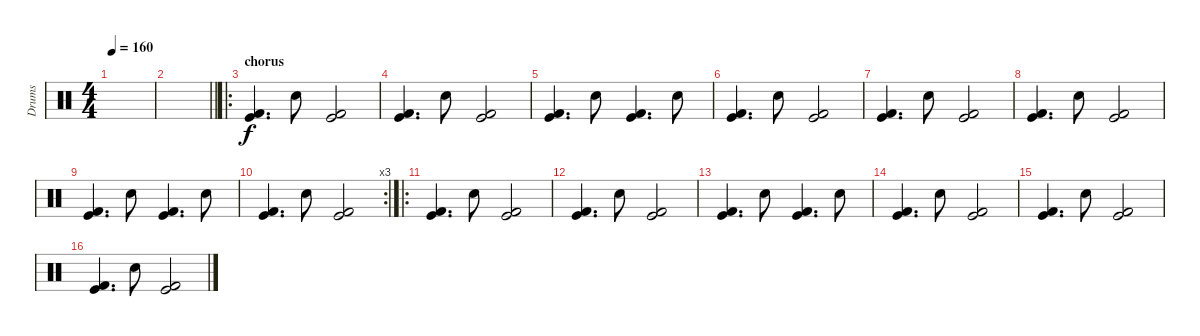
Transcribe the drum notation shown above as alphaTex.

\track ("Drums" "Drums") {instrument percussion}
\staff {score}
\articulation defaults
\ts (4 4)
\tempo 160
\clef neutral
\ks c
|
\barLineRight lightlight
|
\ro
\section ("" "chorus")
("Kick (hit)" "Kick (hit) 2").4{d} "Snare (hit) 2".8 ("Kick (hit)" "Kick (hit) 2").2 |
("Kick (hit)" "Kick (hit) 2").4{d} "Snare (hit) 2".8 ("Kick (hit)" "Kick (hit) 2").2 |
("Kick (hit)" "Kick (hit) 2").4{d} "Snare (hit) 2".8 ("Kick (hit)" "Kick (hit) 2").4{d} "Snare (hit) 2".8 |
("Kick (hit)" "Kick (hit) 2").4{d} "Snare (hit) 2".8 ("Kick (hit)" "Kick (hit) 2").2 |
("Kick (hit)" "Kick (hit) 2").4{d} "Snare (hit) 2".8 ("Kick (hit)" "Kick (hit) 2").2 |
("Kick (hit)" "Kick (hit) 2").4{d} "Snare (hit) 2".8 ("Kick (hit)" "Kick (hit) 2").2 |
("Kick (hit)" "Kick (hit) 2").4{d} "Snare (hit) 2".8 ("Kick (hit)" "Kick (hit) 2").4{d} "Snare (hit) 2".8 |
\rc 3
("Kick (hit)" "Kick (hit) 2").4{d} "Snare (hit) 2".8 ("Kick (hit)" "Kick (hit) 2").2 |
\ro
("Kick (hit)" "Kick (hit) 2").4{d} "Snare (hit) 2".8 ("Kick (hit)" "Kick (hit) 2").2 |
("Kick (hit)" "Kick (hit) 2").4{d} "Snare (hit) 2".8 ("Kick (hit)" "Kick (hit) 2").2 |
("Kick (hit)" "Kick (hit) 2").4{d} "Snare (hit) 2".8 ("Kick (hit)" "Kick (hit) 2").4{d} "Snare (hit) 2".8 |
("Kick (hit)" "Kick (hit) 2").4{d} "Snare (hit) 2".8 ("Kick (hit)" "Kick (hit) 2").2 |
("Kick (hit)" "Kick (hit) 2").4{d} "Snare (hit) 2".8 ("Kick (hit)" "Kick (hit) 2").2 |
("Kick (hit)" "Kick (hit) 2").4{d} "Snare (hit) 2".8 ("Kick (hit)" "Kick (hit) 2").2
